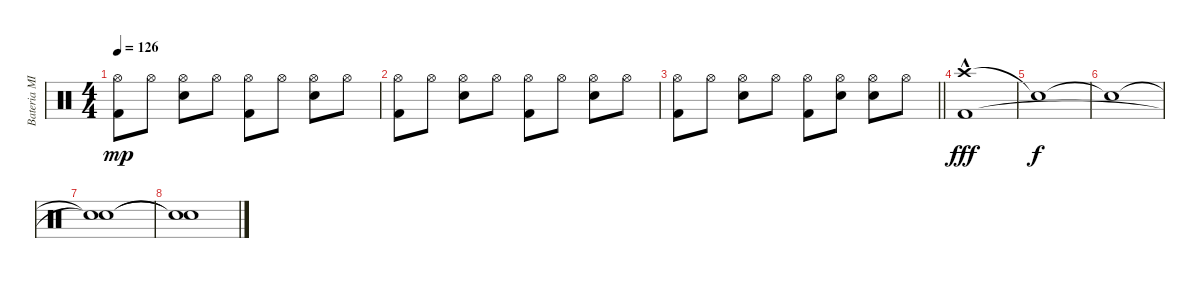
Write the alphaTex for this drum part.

\track ("Bateria MIDI" "Bateria MI") {instrument percussion}
\staff {score}
\articulation defaults
\ts (4 4)
\tempo 126
\clef neutral
\ks c
("Hi-Hat (open)" "Kick (hit) 2").8{dy mp} "Hi-Hat (open)".8 ("Hi-Hat (open)" "Snare (hit) 2").8 "Hi-Hat (open)".8 ("Hi-Hat (open)" "Kick (hit) 2").8 "Hi-Hat (open)".8 ("Hi-Hat (open)" "Snare (hit) 2").8 "Hi-Hat (open)".8 |
("Hi-Hat (open)" "Kick (hit) 2").8 "Hi-Hat (open)".8 ("Hi-Hat (open)" "Snare (hit) 2").8 "Hi-Hat (open)".8 ("Hi-Hat (open)" "Kick (hit) 2").8 "Hi-Hat (open)".8 ("Hi-Hat (open)" "Snare (hit) 2").8 "Hi-Hat (open)".8 |
\barLineRight lightlight
("Hi-Hat (open)" "Kick (hit) 2").8 "Hi-Hat (open)".8 ("Hi-Hat (open)" "Snare (hit) 2").8 "Hi-Hat (open)".8 ("Hi-Hat (open)" "Kick (hit) 2").8 ("Hi-Hat (open)" "Snare (hit) 2").8 ("Hi-Hat (open)" "Snare (hit) 2").8 "Hi-Hat (open)".8 |
("Crash high (hit)"{hac} "Kick (hit) 2").1{dy fff} |
"Snare (hit)"{t}.1{dy f} |
"Snare (hit)"{t}.1 |
("Snare (hit)"{t} "Snare (hit)"{t}).1 |
("Snare (hit)"{t} "Snare (hit)"{t}).1
